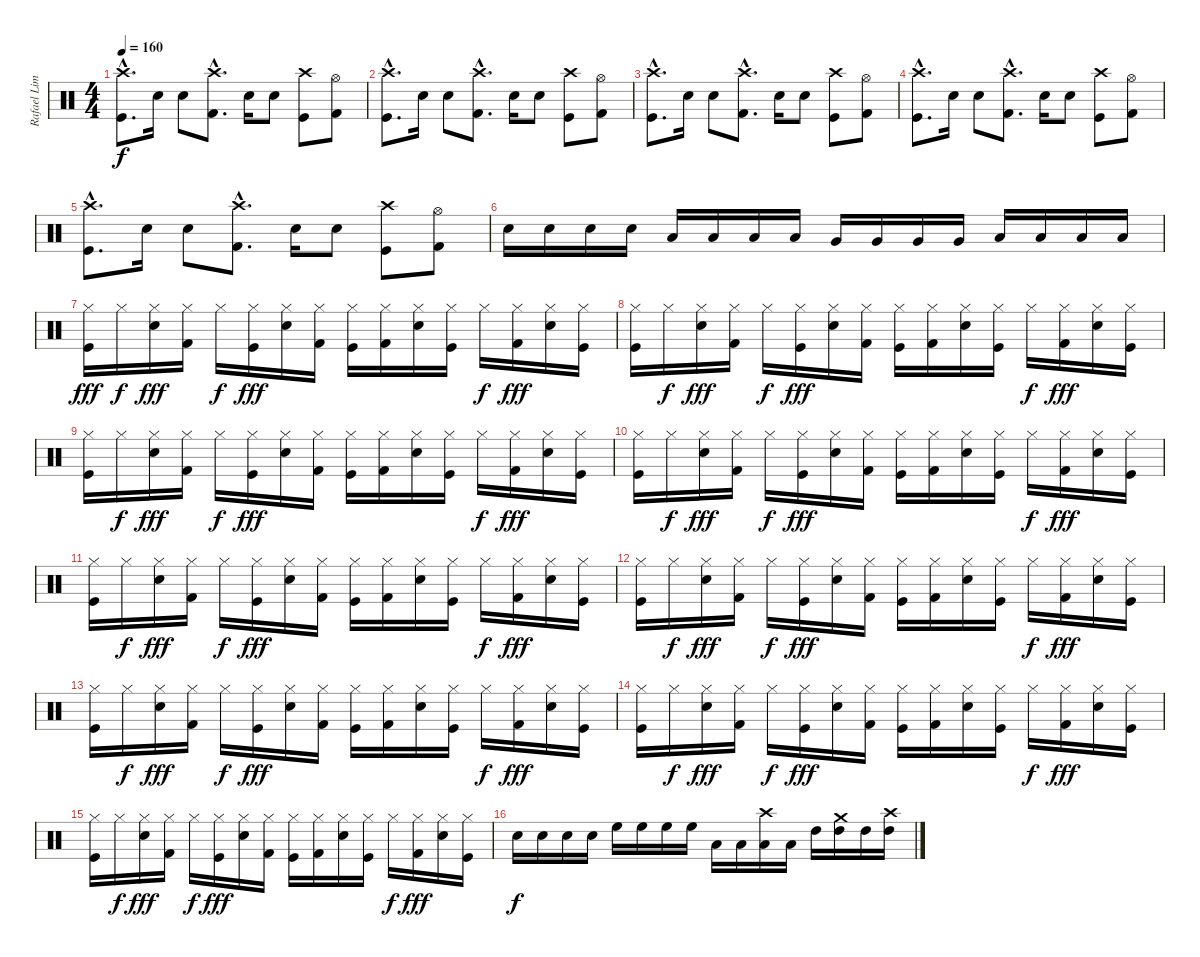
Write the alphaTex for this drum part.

\track ("Rafael Lima" "Rafael Lim") {instrument percussion}
\staff {score}
\articulation defaults
\ts (4 4)
\tempo 160
\clef neutral
\ks c
("Crash high (hit)"{hac} "Kick (hit)"{hac}).8{d dy f} "Electric Snare (hit)".16 "Electric Snare (hit)".8 ("Crash high (hit)"{hac} "Kick (hit) 2"{hac}).8{d} "Electric Snare (hit)".16 "Electric Snare (hit)".8 ("Crash high (hit)" "Kick (hit)").8 ("Hi-Hat (open)" "Kick (hit) 2").8 |
("Crash high (hit)"{hac} "Kick (hit)"{hac}).8{d} "Electric Snare (hit)".16 "Electric Snare (hit)".8 ("Crash high (hit)"{hac} "Kick (hit) 2"{hac}).8{d} "Electric Snare (hit)".16 "Electric Snare (hit)".8 ("Crash high (hit)" "Kick (hit)").8 ("Hi-Hat (open)" "Kick (hit) 2").8 |
("Crash high (hit)"{hac} "Kick (hit)"{hac}).8{d} "Electric Snare (hit)".16 "Electric Snare (hit)".8 ("Crash high (hit)"{hac} "Kick (hit) 2"{hac}).8{d} "Electric Snare (hit)".16 "Electric Snare (hit)".8 ("Crash high (hit)" "Kick (hit)").8 ("Hi-Hat (open)" "Kick (hit) 2").8 |
("Crash high (hit)"{hac} "Kick (hit)"{hac}).8{d} "Electric Snare (hit)".16 "Electric Snare (hit)".8 ("Crash high (hit)"{hac} "Kick (hit) 2"{hac}).8{d} "Electric Snare (hit)".16 "Electric Snare (hit)".8 ("Crash high (hit)" "Kick (hit)").8 ("Hi-Hat (open)" "Kick (hit) 2").8 |
("Crash high (hit)"{hac} "Kick (hit)"{hac}).8{d} "Electric Snare (hit)".16 "Electric Snare (hit)".8 ("Crash high (hit)"{hac} "Kick (hit) 2"{hac}).8{d} "Electric Snare (hit)".16 "Electric Snare (hit)".8 ("Crash high (hit)" "Kick (hit)").8 ("Hi-Hat (open)" "Kick (hit) 2").8 |
"Electric Snare (hit)".16 "Electric Snare (hit)".16 "Electric Snare (hit)".16 "Electric Snare (hit)".16 "Low Tom (hit)".16 "Low Tom (hit)".16 "Low Tom (hit)".16 "Low Tom (hit)".16 "Very Low Tom (hit)".16 "Very Low Tom (hit)".16 "Very Low Tom (hit)".16 "Very Low Tom (hit)".16 "Low Floor Tom (hit)".16 "Low Floor Tom (hit)".16 "Low Floor Tom (hit)".16 "Low Floor Tom (hit)".16 |
("Hi-Hat (closed)" "Kick (hit)").16{dy fff} "Hi-Hat (closed)".16{dy f} ("Hi-Hat (closed)" "Electric Snare (hit)").16{dy fff} ("Hi-Hat (closed)" "Kick (hit) 2").16 "Hi-Hat (closed)".16{dy f} ("Hi-Hat (closed)" "Kick (hit)").16{dy fff} ("Hi-Hat (closed)" "Electric Snare (hit)").16 ("Hi-Hat (closed)" "Kick (hit) 2").16 ("Hi-Hat (closed)" "Kick (hit)").16 ("Hi-Hat (closed)" "Kick (hit) 2").16 ("Hi-Hat (closed)" "Electric Snare (hit)").16 ("Hi-Hat (closed)" "Kick (hit)").16 "Hi-Hat (closed)".16{dy f} ("Hi-Hat (closed)" "Kick (hit) 2").16{dy fff} ("Hi-Hat (closed)" "Electric Snare (hit)").16 ("Hi-Hat (closed)" "Kick (hit)").16 |
("Hi-Hat (closed)" "Kick (hit)").16 "Hi-Hat (closed)".16{dy f} ("Hi-Hat (closed)" "Electric Snare (hit)").16{dy fff} ("Hi-Hat (closed)" "Kick (hit) 2").16 "Hi-Hat (closed)".16{dy f} ("Hi-Hat (closed)" "Kick (hit)").16{dy fff} ("Hi-Hat (closed)" "Electric Snare (hit)").16 ("Hi-Hat (closed)" "Kick (hit) 2").16 ("Hi-Hat (closed)" "Kick (hit)").16 ("Hi-Hat (closed)" "Kick (hit) 2").16 ("Hi-Hat (closed)" "Electric Snare (hit)").16 ("Hi-Hat (closed)" "Kick (hit)").16 "Hi-Hat (closed)".16{dy f} ("Hi-Hat (closed)" "Kick (hit) 2").16{dy fff} ("Hi-Hat (closed)" "Electric Snare (hit)").16 ("Hi-Hat (closed)" "Kick (hit)").16 |
("Hi-Hat (closed)" "Kick (hit)").16 "Hi-Hat (closed)".16{dy f} ("Hi-Hat (closed)" "Electric Snare (hit)").16{dy fff} ("Hi-Hat (closed)" "Kick (hit) 2").16 "Hi-Hat (closed)".16{dy f} ("Hi-Hat (closed)" "Kick (hit)").16{dy fff} ("Hi-Hat (closed)" "Electric Snare (hit)").16 ("Hi-Hat (closed)" "Kick (hit) 2").16 ("Hi-Hat (closed)" "Kick (hit)").16 ("Hi-Hat (closed)" "Kick (hit) 2").16 ("Hi-Hat (closed)" "Electric Snare (hit)").16 ("Hi-Hat (closed)" "Kick (hit)").16 "Hi-Hat (closed)".16{dy f} ("Hi-Hat (closed)" "Kick (hit) 2").16{dy fff} ("Hi-Hat (closed)" "Electric Snare (hit)").16 ("Hi-Hat (closed)" "Kick (hit)").16 |
("Hi-Hat (closed)" "Kick (hit)").16 "Hi-Hat (closed)".16{dy f} ("Hi-Hat (closed)" "Electric Snare (hit)").16{dy fff} ("Hi-Hat (closed)" "Kick (hit) 2").16 "Hi-Hat (closed)".16{dy f} ("Hi-Hat (closed)" "Kick (hit)").16{dy fff} ("Hi-Hat (closed)" "Electric Snare (hit)").16 ("Hi-Hat (closed)" "Kick (hit) 2").16 ("Hi-Hat (closed)" "Kick (hit)").16 ("Hi-Hat (closed)" "Kick (hit) 2").16 ("Hi-Hat (closed)" "Electric Snare (hit)").16 ("Hi-Hat (closed)" "Kick (hit)").16 "Hi-Hat (closed)".16{dy f} ("Hi-Hat (closed)" "Kick (hit) 2").16{dy fff} ("Hi-Hat (closed)" "Electric Snare (hit)").16 ("Hi-Hat (closed)" "Kick (hit)").16 |
("Hi-Hat (closed)" "Kick (hit)").16 "Hi-Hat (closed)".16{dy f} ("Hi-Hat (closed)" "Electric Snare (hit)").16{dy fff} ("Hi-Hat (closed)" "Kick (hit) 2").16 "Hi-Hat (closed)".16{dy f} ("Hi-Hat (closed)" "Kick (hit)").16{dy fff} ("Hi-Hat (closed)" "Electric Snare (hit)").16 ("Hi-Hat (closed)" "Kick (hit) 2").16 ("Hi-Hat (closed)" "Kick (hit)").16 ("Hi-Hat (closed)" "Kick (hit) 2").16 ("Hi-Hat (closed)" "Electric Snare (hit)").16 ("Hi-Hat (closed)" "Kick (hit)").16 "Hi-Hat (closed)".16{dy f} ("Hi-Hat (closed)" "Kick (hit) 2").16{dy fff} ("Hi-Hat (closed)" "Electric Snare (hit)").16 ("Hi-Hat (closed)" "Kick (hit)").16 |
("Hi-Hat (closed)" "Kick (hit)").16 "Hi-Hat (closed)".16{dy f} ("Hi-Hat (closed)" "Electric Snare (hit)").16{dy fff} ("Hi-Hat (closed)" "Kick (hit) 2").16 "Hi-Hat (closed)".16{dy f} ("Hi-Hat (closed)" "Kick (hit)").16{dy fff} ("Hi-Hat (closed)" "Electric Snare (hit)").16 ("Hi-Hat (closed)" "Kick (hit) 2").16 ("Hi-Hat (closed)" "Kick (hit)").16 ("Hi-Hat (closed)" "Kick (hit) 2").16 ("Hi-Hat (closed)" "Electric Snare (hit)").16 ("Hi-Hat (closed)" "Kick (hit)").16 "Hi-Hat (closed)".16{dy f} ("Hi-Hat (closed)" "Kick (hit) 2").16{dy fff} ("Hi-Hat (closed)" "Electric Snare (hit)").16 ("Hi-Hat (closed)" "Kick (hit)").16 |
("Hi-Hat (closed)" "Kick (hit)").16 "Hi-Hat (closed)".16{dy f} ("Hi-Hat (closed)" "Electric Snare (hit)").16{dy fff} ("Hi-Hat (closed)" "Kick (hit) 2").16 "Hi-Hat (closed)".16{dy f} ("Hi-Hat (closed)" "Kick (hit)").16{dy fff} ("Hi-Hat (closed)" "Electric Snare (hit)").16 ("Hi-Hat (closed)" "Kick (hit) 2").16 ("Hi-Hat (closed)" "Kick (hit)").16 ("Hi-Hat (closed)" "Kick (hit) 2").16 ("Hi-Hat (closed)" "Electric Snare (hit)").16 ("Hi-Hat (closed)" "Kick (hit)").16 "Hi-Hat (closed)".16{dy f} ("Hi-Hat (closed)" "Kick (hit) 2").16{dy fff} ("Hi-Hat (closed)" "Electric Snare (hit)").16 ("Hi-Hat (closed)" "Kick (hit)").16 |
("Hi-Hat (closed)" "Kick (hit)").16 "Hi-Hat (closed)".16{dy f} ("Hi-Hat (closed)" "Electric Snare (hit)").16{dy fff} ("Hi-Hat (closed)" "Kick (hit) 2").16 "Hi-Hat (closed)".16{dy f} ("Hi-Hat (closed)" "Kick (hit)").16{dy fff} ("Hi-Hat (closed)" "Electric Snare (hit)").16 ("Hi-Hat (closed)" "Kick (hit) 2").16 ("Hi-Hat (closed)" "Kick (hit)").16 ("Hi-Hat (closed)" "Kick (hit) 2").16 ("Hi-Hat (closed)" "Electric Snare (hit)").16 ("Hi-Hat (closed)" "Kick (hit)").16 "Hi-Hat (closed)".16{dy f} ("Hi-Hat (closed)" "Kick (hit) 2").16{dy fff} ("Hi-Hat (closed)" "Electric Snare (hit)").16 ("Hi-Hat (closed)" "Kick (hit)").16 |
("Hi-Hat (closed)" "Kick (hit)").16 "Hi-Hat (closed)".16{dy f} ("Hi-Hat (closed)" "Electric Snare (hit)").16{dy fff} ("Hi-Hat (closed)" "Kick (hit) 2").16 "Hi-Hat (closed)".16{dy f} ("Hi-Hat (closed)" "Kick (hit)").16{dy fff} ("Hi-Hat (closed)" "Electric Snare (hit)").16 ("Hi-Hat (closed)" "Kick (hit) 2").16 ("Hi-Hat (closed)" "Kick (hit)").16 ("Hi-Hat (closed)" "Kick (hit) 2").16 ("Hi-Hat (closed)" "Electric Snare (hit)").16 ("Hi-Hat (closed)" "Kick (hit)").16 "Hi-Hat (closed)".16{dy f} ("Hi-Hat (closed)" "Kick (hit) 2").16{dy fff} ("Hi-Hat (closed)" "Electric Snare (hit)").16 ("Hi-Hat (closed)" "Kick (hit)").16 |
"Electric Snare (hit)".16{dy f} "Electric Snare (hit)".16 "Electric Snare (hit)".16 "Electric Snare (hit)".16 "High Floor Tom (hit)".16 "High Floor Tom (hit)".16 "High Floor Tom (hit)".16 "High Floor Tom (hit)".16 "Low Floor Tom (hit)".16 "Low Floor Tom (hit)".16 ("Crash high (hit)" "Low Floor Tom (hit)").16 "Low Floor Tom (hit)".16 "High Tom (hit)".16 ("Crash medium (hit)" "High Tom (hit)").16 "High Tom (hit)".16 ("Crash high (hit)" "High Tom (hit)").16
